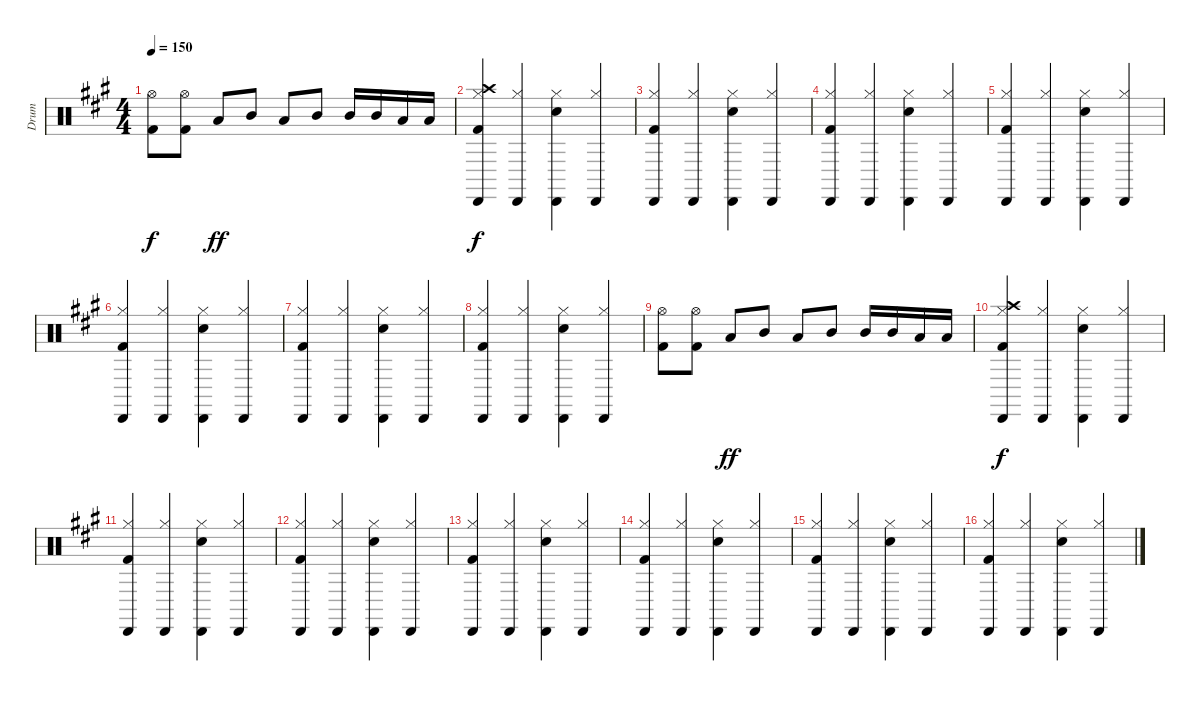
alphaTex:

\track ("Drum " "Drum ") {instrument percussion}
\staff {score}
\articulation defaults
\ts (4 4)
\tempo 150
\clef neutral
\ks a
("Hi-Hat (open)" "Kick (hit) 2").8{dy f} ("Hi-Hat (open)" "Kick (hit) 2").8 "Low Tom (hit)".8{dy ff} "Mid Tom (hit)".8 "Low Tom (hit)".8 "Mid Tom (hit)".8 "Mid Tom (hit)".16 "Mid Tom (hit)".16 "Low Tom (hit)".16 "Low Tom (hit)".16 |
("Hi-Hat (closed)" "Crash high (hit)" "Cabasa (hit)" "Kick (hit) 2").4{dy f} ("Hi-Hat (closed)" "Cabasa (hit)").4 ("Hi-Hat (closed)" "Snare (hit) 2" "Cabasa (hit)").4 ("Hi-Hat (closed)" "Cabasa (hit)").4 |
("Hi-Hat (closed)" "Cabasa (hit)" "Kick (hit) 2").4 ("Hi-Hat (closed)" "Cabasa (hit)").4 ("Hi-Hat (closed)" "Snare (hit) 2" "Cabasa (hit)").4 ("Hi-Hat (closed)" "Cabasa (hit)").4 |
("Hi-Hat (closed)" "Cabasa (hit)" "Kick (hit) 2").4 ("Hi-Hat (closed)" "Cabasa (hit)").4 ("Hi-Hat (closed)" "Snare (hit) 2" "Cabasa (hit)").4 ("Hi-Hat (closed)" "Cabasa (hit)").4 |
("Hi-Hat (closed)" "Cabasa (hit)" "Kick (hit) 2").4 ("Hi-Hat (closed)" "Cabasa (hit)").4 ("Hi-Hat (closed)" "Snare (hit) 2" "Cabasa (hit)").4 ("Hi-Hat (closed)" "Cabasa (hit)").4 |
("Hi-Hat (closed)" "Cabasa (hit)" "Kick (hit) 2").4 ("Hi-Hat (closed)" "Cabasa (hit)").4 ("Hi-Hat (closed)" "Snare (hit) 2" "Cabasa (hit)").4 ("Hi-Hat (closed)" "Cabasa (hit)").4 |
("Hi-Hat (closed)" "Cabasa (hit)" "Kick (hit) 2").4 ("Hi-Hat (closed)" "Cabasa (hit)").4 ("Hi-Hat (closed)" "Snare (hit) 2" "Cabasa (hit)").4 ("Hi-Hat (closed)" "Cabasa (hit)").4 |
("Hi-Hat (closed)" "Cabasa (hit)" "Kick (hit) 2").4 ("Hi-Hat (closed)" "Cabasa (hit)").4 ("Hi-Hat (closed)" "Snare (hit) 2" "Cabasa (hit)").4 ("Hi-Hat (closed)" "Cabasa (hit)").4 |
("Hi-Hat (open)" "Kick (hit) 2").8{volume 6} ("Hi-Hat (open)" "Kick (hit) 2").8 "Low Tom (hit)".8{dy ff} "Mid Tom (hit)".8 "Low Tom (hit)".8 "Mid Tom (hit)".8 "Mid Tom (hit)".16 "Mid Tom (hit)".16 "Low Tom (hit)".16 "Low Tom (hit)".16 |
("Hi-Hat (closed)" "Crash high (hit)" "Cabasa (hit)" "Kick (hit) 2").4{dy f} ("Hi-Hat (closed)" "Cabasa (hit)").4 ("Hi-Hat (closed)" "Snare (hit) 2" "Cabasa (hit)").4 ("Hi-Hat (closed)" "Cabasa (hit)").4 |
("Hi-Hat (closed)" "Cabasa (hit)" "Kick (hit) 2").4 ("Hi-Hat (closed)" "Cabasa (hit)").4 ("Hi-Hat (closed)" "Snare (hit) 2" "Cabasa (hit)").4 ("Hi-Hat (closed)" "Cabasa (hit)").4 |
("Hi-Hat (closed)" "Cabasa (hit)" "Kick (hit) 2").4 ("Hi-Hat (closed)" "Cabasa (hit)").4 ("Hi-Hat (closed)" "Snare (hit) 2" "Cabasa (hit)").4 ("Hi-Hat (closed)" "Cabasa (hit)").4 |
("Hi-Hat (closed)" "Cabasa (hit)" "Kick (hit) 2").4{volume 0} ("Hi-Hat (closed)" "Cabasa (hit)").4 ("Hi-Hat (closed)" "Snare (hit) 2" "Cabasa (hit)").4 ("Hi-Hat (closed)" "Cabasa (hit)").4 |
("Hi-Hat (closed)" "Cabasa (hit)" "Kick (hit) 2").4 ("Hi-Hat (closed)" "Cabasa (hit)").4 ("Hi-Hat (closed)" "Snare (hit) 2" "Cabasa (hit)").4 ("Hi-Hat (closed)" "Cabasa (hit)").4 |
("Hi-Hat (closed)" "Cabasa (hit)" "Kick (hit) 2").4 ("Hi-Hat (closed)" "Cabasa (hit)").4 ("Hi-Hat (closed)" "Snare (hit) 2" "Cabasa (hit)").4 ("Hi-Hat (closed)" "Cabasa (hit)").4 |
("Hi-Hat (closed)" "Cabasa (hit)" "Kick (hit) 2").4 ("Hi-Hat (closed)" "Cabasa (hit)").4 ("Hi-Hat (closed)" "Snare (hit) 2" "Cabasa (hit)").4 ("Hi-Hat (closed)" "Cabasa (hit)").4
